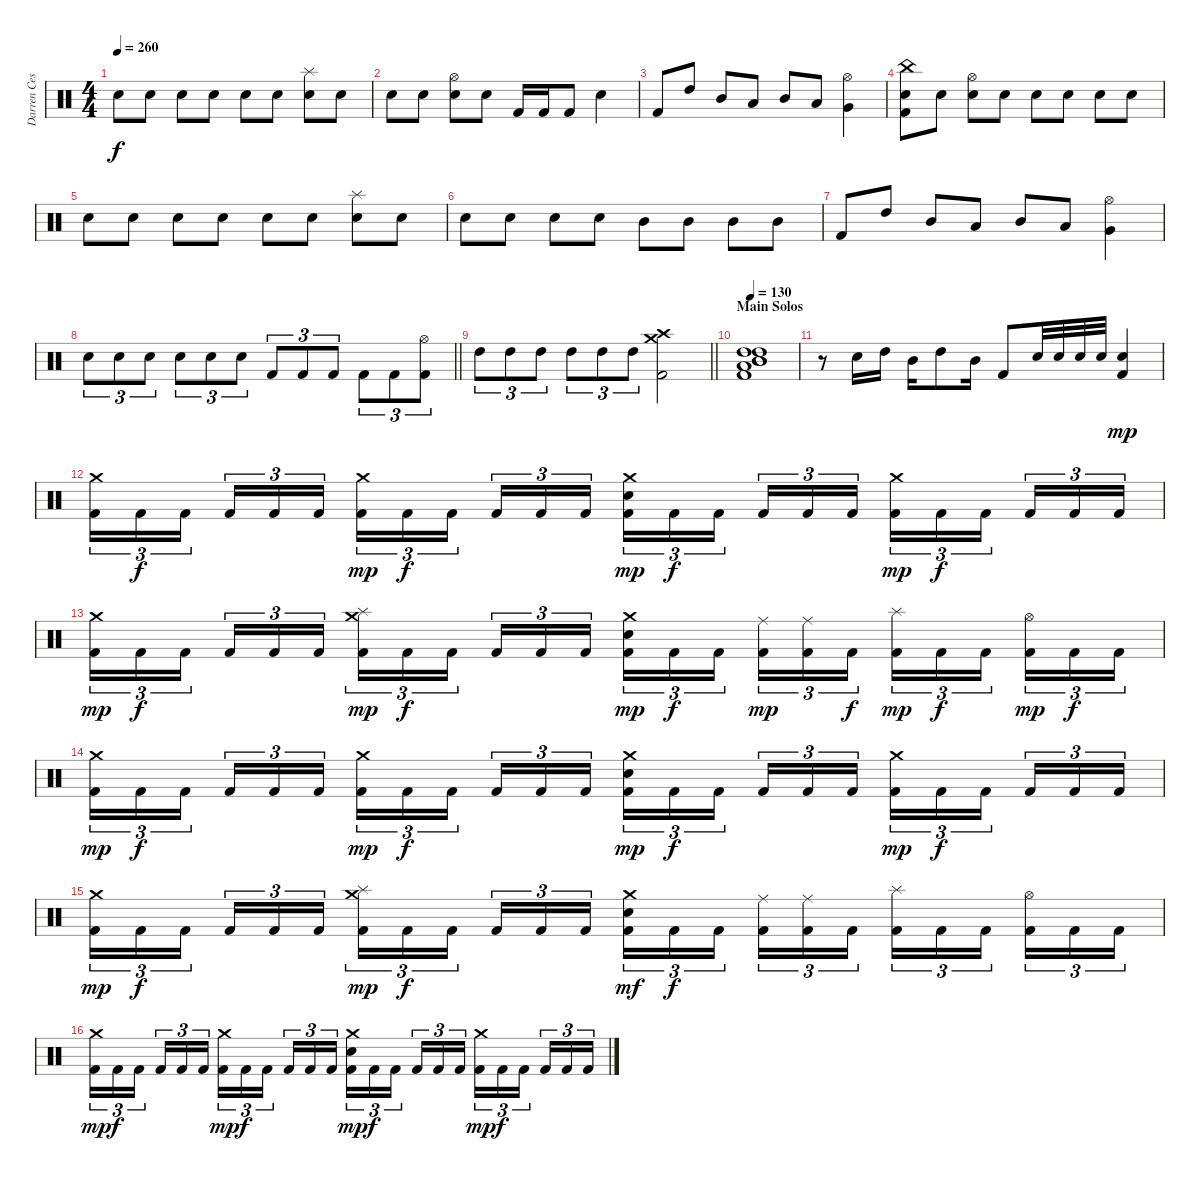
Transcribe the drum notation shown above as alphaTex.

\track ("Darren Cesca" "Darren Ces") {instrument percussion}
\staff {score}
\articulation defaults
\ts (4 4)
\tempo 260
\clef neutral
\ks c "Electric Snare (hit)".8{dy f} "Electric Snare (hit)".8 "Electric Snare (hit)".8 "Electric Snare (hit)".8 "Electric Snare (hit)".8 "Electric Snare (hit)".8
("Splash (hit)" "Electric Snare (hit)").8 "Electric Snare (hit)".8 |
"Electric Snare (hit)".8 "Electric Snare (hit)".8 ("Hi-Hat (open)" "Electric Snare (hit)").8 "Electric Snare (hit)".8 "Kick (hit) 2".16 "Kick (hit) 2".16 "Kick (hit) 2".8 "Electric Snare (hit)".4 |
"Kick (hit) 2".8 "High Tom (hit)".8 "Mid Tom (hit)".8 "Low Tom (hit)".8 "Mid Tom (hit)".8 "Low Tom (hit)".8 ("Hi-Hat (open)" "Very Low Tom (hit)").4 |
("China (hit)" "Electric Snare (hit)" "Kick (hit) 2").8 "Electric Snare (hit)".8 ("Hi-Hat (open)" "Electric Snare (hit)").8 "Electric Snare (hit)".8 "Electric Snare (hit)".8 "Electric Snare (hit)".8 "Electric Snare (hit)".8 "Electric Snare (hit)".8 |
"Electric Snare (hit)".8 "Electric Snare (hit)".8 "Electric Snare (hit)".8 "Electric Snare (hit)".8 "Electric Snare (hit)".8 "Electric Snare (hit)".8 ("Splash (hit)" "Electric Snare (hit)").8 "Electric Snare (hit)".8 |
"Electric Snare (hit)".8 "Electric Snare (hit)".8 "Electric Snare (hit)".8 "Electric Snare (hit)".8 "Mid Tom (hit)".8 "Mid Tom (hit)".8 "Mid Tom (hit)".8 "Mid Tom (hit)".8 |
"Kick (hit) 2".8 "High Tom (hit)".8 "Mid Tom (hit)".8 "Low Tom (hit)".8 "Mid Tom (hit)".8 "Low Tom (hit)".8 ("Hi-Hat (open)" "Very Low Tom (hit)").4 |
\barLineRight lightlight "Electric Snare (hit)".8{tu (3 2)} "Electric Snare (hit)".8{tu (3 2)} "Electric Snare (hit)".8{tu (3 2)} "Electric Snare (hit)".8{tu (3 2)} "Electric Snare (hit)".8{tu (3 2)} "Electric Snare (hit)".8{tu (3 2)} "Kick (hit) 2".8{tu (3 2)} "Kick (hit) 2".8{tu (3 2)} "Kick (hit) 2".8{tu (3 2)} "Kick (hit) 2".8{tu (3 2)} "Kick (hit) 2".8{tu (3 2)}
("Hi-Hat (open)" "Kick (hit) 2").8{tu (3 2)} |
\barLineRight lightlight "High Tom (hit)".8{tu (3 2)} "High Tom (hit)".8{tu (3 2)} "High Tom (hit)".8{tu (3 2)} "High Tom (hit)".8{tu (3 2)} "High Tom (hit)".8{tu (3 2)} "High Tom (hit)".8{tu (3 2)}
("Crash medium (hit)" "Crash high (hit)" "Kick (hit) 2").2 |
\section ("" "Main Solos")
\tempo 130
("High Tom (hit)" "High Tom (hit)" "Mid Tom (hit)" "Mid Tom (hit)" "Low Tom (hit)" "Kick (hit) 2").1 |
r.8 "Electric Snare (hit)".16 "High Tom (hit)".16 "Mid Tom (hit)".16 "High Tom (hit)".8 "Mid Tom (hit)".16 "Kick (hit) 2".8 "Electric Snare (hit)".32 "Electric Snare (hit)".32 "Electric Snare (hit)".32 "Electric Snare (hit)".32 ("Electric Snare (hit)" "Kick (hit) 2").4{dy mp} |
("Crash medium (hit)" "Kick (hit) 2").16{tu (3 2)} "Kick (hit) 2".16{tu (3 2) dy f} "Kick (hit) 2".16{tu (3 2) beam splitsecondary} "Kick (hit) 2".16{tu (3 2)} "Kick (hit) 2".16{tu (3 2)} "Kick (hit) 2".16{tu (3 2)} ("Crash medium (hit)" "Kick (hit) 2").16{tu (3 2) dy mp} "Kick (hit) 2".16{tu (3 2) dy f} "Kick (hit) 2".16{tu (3 2) beam splitsecondary} "Kick (hit) 2".16{tu (3 2)} "Kick (hit) 2".16{tu (3 2)} "Kick (hit) 2".16{tu (3 2)} ("Crash medium (hit)" "Electric Snare (hit)" "Kick (hit) 2").16{tu (3 2) dy mp} "Kick (hit) 2".16{tu (3 2) dy f} "Kick (hit) 2".16{tu (3 2) beam splitsecondary} "Kick (hit) 2".16{tu (3 2)} "Kick (hit) 2".16{tu (3 2)} "Kick (hit) 2".16{tu (3 2)} ("Crash medium (hit)" "Kick (hit) 2").16{tu (3 2) dy mp} "Kick (hit) 2".16{tu (3 2) dy f} "Kick (hit) 2".16{tu (3 2) beam splitsecondary} "Kick (hit) 2".16{tu (3 2)} "Kick (hit) 2".16{tu (3 2)} "Kick (hit) 2".16{tu (3 2)} |
("Crash medium (hit)" "Kick (hit) 2").16{tu (3 2) dy mp} "Kick (hit) 2".16{tu (3 2) dy f} "Kick (hit) 2".16{tu (3 2) beam splitsecondary} "Kick (hit) 2".16{tu (3 2)} "Kick (hit) 2".16{tu (3 2)} "Kick (hit) 2".16{tu (3 2)} ("Crash medium (hit)" "Splash (hit)" "Kick (hit) 2").16{tu (3 2) dy mp} "Kick (hit) 2".16{tu (3 2) dy f} "Kick (hit) 2".16{tu (3 2) beam splitsecondary} "Kick (hit) 2".16{tu (3 2)} "Kick (hit) 2".16{tu (3 2)} "Kick (hit) 2".16{tu (3 2)} ("Crash medium (hit)" "Electric Snare (hit)" "Kick (hit) 2").16{tu (3 2) dy mp} "Kick (hit) 2".16{tu (3 2) dy f} "Kick (hit) 2".16{tu (3 2) beam splitsecondary} ("Ride (middle)" "Kick (hit) 2").16{tu (3 2) dy mp} ("Ride (middle)" "Kick (hit) 2").16{tu (3 2)} "Kick (hit) 2".16{tu (3 2) dy f} ("Splash (hit)" "Kick (hit) 2").16{tu (3 2) dy mp} "Kick (hit) 2".16{tu (3 2) dy f} "Kick (hit) 2".16{tu (3 2) beam splitsecondary} ("Hi-Hat (open)" "Kick (hit) 2").16{tu (3 2) dy mp} "Kick (hit) 2".16{tu (3 2) dy f} "Kick (hit) 2".16{tu (3 2)} |
("Crash medium (hit)" "Kick (hit) 2").16{tu (3 2) dy mp} "Kick (hit) 2".16{tu (3 2) dy f} "Kick (hit) 2".16{tu (3 2) beam splitsecondary} "Kick (hit) 2".16{tu (3 2)} "Kick (hit) 2".16{tu (3 2)} "Kick (hit) 2".16{tu (3 2)} ("Crash medium (hit)" "Kick (hit) 2").16{tu (3 2) dy mp} "Kick (hit) 2".16{tu (3 2) dy f} "Kick (hit) 2".16{tu (3 2) beam splitsecondary} "Kick (hit) 2".16{tu (3 2)} "Kick (hit) 2".16{tu (3 2)} "Kick (hit) 2".16{tu (3 2)} ("Crash medium (hit)" "Electric Snare (hit)" "Kick (hit) 2").16{tu (3 2) dy mp} "Kick (hit) 2".16{tu (3 2) dy f} "Kick (hit) 2".16{tu (3 2) beam splitsecondary} "Kick (hit) 2".16{tu (3 2)} "Kick (hit) 2".16{tu (3 2)} "Kick (hit) 2".16{tu (3 2)} ("Crash medium (hit)" "Kick (hit) 2").16{tu (3 2) dy mp} "Kick (hit) 2".16{tu (3 2) dy f} "Kick (hit) 2".16{tu (3 2) beam splitsecondary} "Kick (hit) 2".16{tu (3 2)} "Kick (hit) 2".16{tu (3 2)} "Kick (hit) 2".16{tu (3 2)} |
("Crash medium (hit)" "Kick (hit) 2").16{tu (3 2) dy mp} "Kick (hit) 2".16{tu (3 2) dy f} "Kick (hit) 2".16{tu (3 2) beam splitsecondary} "Kick (hit) 2".16{tu (3 2)} "Kick (hit) 2".16{tu (3 2)} "Kick (hit) 2".16{tu (3 2)} ("Crash medium (hit)" "Splash (hit)" "Kick (hit) 2").16{tu (3 2) dy mp} "Kick (hit) 2".16{tu (3 2) dy f} "Kick (hit) 2".16{tu (3 2) beam splitsecondary} "Kick (hit) 2".16{tu (3 2)} "Kick (hit) 2".16{tu (3 2)} "Kick (hit) 2".16{tu (3 2)} ("Crash medium (hit)" "Electric Snare (hit)" "Kick (hit) 2").16{tu (3 2) dy mf} "Kick (hit) 2".16{tu (3 2) dy f} "Kick (hit) 2".16{tu (3 2) beam splitsecondary} ("Ride (middle)" "Kick (hit) 2").16{tu (3 2)} ("Ride (middle)" "Kick (hit) 2").16{tu (3 2)} "Kick (hit) 2".16{tu (3 2)} ("Splash (hit)" "Kick (hit) 2").16{tu (3 2)} "Kick (hit) 2".16{tu (3 2)} "Kick (hit) 2".16{tu (3 2) beam splitsecondary} ("Hi-Hat (open)" "Kick (hit) 2").16{tu (3 2)} "Kick (hit) 2".16{tu (3 2)} "Kick (hit) 2".16{tu (3 2)} |
("Crash medium (hit)" "Kick (hit) 2").16{tu (3 2) dy mp} "Kick (hit) 2".16{tu (3 2) dy f} "Kick (hit) 2".16{tu (3 2) beam splitsecondary} "Kick (hit) 2".16{tu (3 2)} "Kick (hit) 2".16{tu (3 2)} "Kick (hit) 2".16{tu (3 2)} ("Crash medium (hit)" "Kick (hit) 2").16{tu (3 2) dy mp} "Kick (hit) 2".16{tu (3 2) dy f} "Kick (hit) 2".16{tu (3 2) beam splitsecondary} "Kick (hit) 2".16{tu (3 2)} "Kick (hit) 2".16{tu (3 2)} "Kick (hit) 2".16{tu (3 2)} ("Crash medium (hit)" "Electric Snare (hit)" "Kick (hit) 2").16{tu (3 2) dy mp} "Kick (hit) 2".16{tu (3 2) dy f} "Kick (hit) 2".16{tu (3 2) beam splitsecondary} "Kick (hit) 2".16{tu (3 2)} "Kick (hit) 2".16{tu (3 2)} "Kick (hit) 2".16{tu (3 2)} ("Crash medium (hit)" "Kick (hit) 2").16{tu (3 2) dy mp} "Kick (hit) 2".16{tu (3 2) dy f} "Kick (hit) 2".16{tu (3 2) beam splitsecondary} "Kick (hit) 2".16{tu (3 2)} "Kick (hit) 2".16{tu (3 2)} "Kick (hit) 2".16{tu (3 2)}
